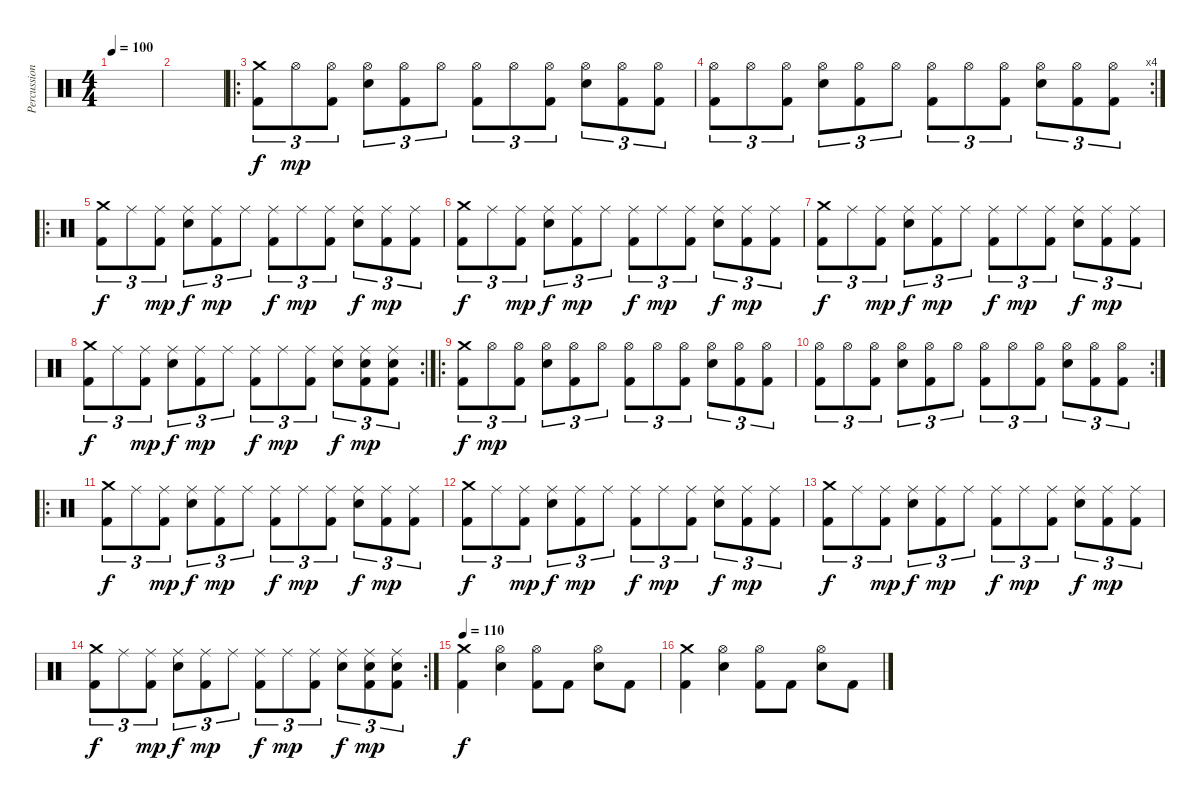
\track ("Percussion" "Percussion") {instrument percussion}
\staff {score}
\articulation defaults
\ts (4 4)
\tempo 100
\clef neutral
\ks c
|
|
\ro
("Crash medium (hit)" "Kick (hit) 2").8{tu (3 2)} "Hi-Hat (open)".8{tu (3 2) dy mp} ("Hi-Hat (open)" "Kick (hit) 2").8{tu (3 2)} ("Hi-Hat (open)" "Electric Snare (hit)").8{tu (3 2)} ("Hi-Hat (open)" "Kick (hit) 2").8{tu (3 2)} "Hi-Hat (open)".8{tu (3 2)} ("Hi-Hat (open)" "Kick (hit) 2").8{tu (3 2)} "Hi-Hat (open)".8{tu (3 2)} ("Hi-Hat (open)" "Kick (hit) 2").8{tu (3 2)} ("Hi-Hat (open)" "Electric Snare (hit)").8{tu (3 2)} ("Hi-Hat (open)" "Kick (hit) 2").8{tu (3 2)} ("Hi-Hat (open)" "Kick (hit) 2").8{tu (3 2)} |
\rc 4
("Hi-Hat (open)" "Kick (hit) 2").8{tu (3 2)} "Hi-Hat (open)".8{tu (3 2)} ("Hi-Hat (open)" "Kick (hit) 2").8{tu (3 2)} ("Hi-Hat (open)" "Electric Snare (hit)").8{tu (3 2)} ("Hi-Hat (open)" "Kick (hit) 2").8{tu (3 2)} "Hi-Hat (open)".8{tu (3 2)} ("Hi-Hat (open)" "Kick (hit) 2").8{tu (3 2)} "Hi-Hat (open)".8{tu (3 2)} ("Hi-Hat (open)" "Kick (hit) 2").8{tu (3 2)} ("Hi-Hat (open)" "Electric Snare (hit)").8{tu (3 2)} ("Hi-Hat (open)" "Kick (hit) 2").8{tu (3 2)} ("Hi-Hat (open)" "Kick (hit) 2").8{tu (3 2)} |
\ro
("Crash medium (hit)" "Kick (hit) 2").8{tu (3 2) dy f} "Ride (middle)".8{tu (3 2)} ("Ride (middle)" "Kick (hit) 2").8{tu (3 2) dy mp} ("Ride (middle)" "Electric Snare (hit)").8{tu (3 2) dy f} ("Ride (middle)" "Kick (hit) 2").8{tu (3 2) dy mp} "Ride (middle)".8{tu (3 2)} ("Ride (middle)" "Kick (hit) 2").8{tu (3 2) dy f} "Ride (middle)".8{tu (3 2) dy mp} ("Ride (middle)" "Kick (hit) 2").8{tu (3 2)} ("Ride (middle)" "Electric Snare (hit)").8{tu (3 2) dy f} ("Ride (middle)" "Kick (hit) 2").8{tu (3 2) dy mp} ("Ride (middle)" "Kick (hit) 2").8{tu (3 2)} |
("Crash medium (hit)" "Kick (hit) 2").8{tu (3 2) dy f} "Ride (middle)".8{tu (3 2)} ("Ride (middle)" "Kick (hit) 2").8{tu (3 2) dy mp} ("Ride (middle)" "Electric Snare (hit)").8{tu (3 2) dy f} ("Ride (middle)" "Kick (hit) 2").8{tu (3 2) dy mp} "Ride (middle)".8{tu (3 2)} ("Ride (middle)" "Kick (hit) 2").8{tu (3 2) dy f} "Ride (middle)".8{tu (3 2) dy mp} ("Ride (middle)" "Kick (hit) 2").8{tu (3 2)} ("Ride (middle)" "Electric Snare (hit)").8{tu (3 2) dy f} ("Ride (middle)" "Kick (hit) 2").8{tu (3 2) dy mp} ("Ride (middle)" "Kick (hit) 2").8{tu (3 2)} |
("Crash medium (hit)" "Kick (hit) 2").8{tu (3 2) dy f} "Ride (middle)".8{tu (3 2)} ("Ride (middle)" "Kick (hit) 2").8{tu (3 2) dy mp} ("Ride (middle)" "Electric Snare (hit)").8{tu (3 2) dy f} ("Ride (middle)" "Kick (hit) 2").8{tu (3 2) dy mp} "Ride (middle)".8{tu (3 2)} ("Ride (middle)" "Kick (hit) 2").8{tu (3 2) dy f} "Ride (middle)".8{tu (3 2) dy mp} ("Ride (middle)" "Kick (hit) 2").8{tu (3 2)} ("Ride (middle)" "Electric Snare (hit)").8{tu (3 2) dy f} ("Ride (middle)" "Kick (hit) 2").8{tu (3 2) dy mp} ("Ride (middle)" "Kick (hit) 2").8{tu (3 2)} |
\rc 2
("Crash medium (hit)" "Kick (hit) 2").8{tu (3 2) dy f} "Ride (middle)".8{tu (3 2)} ("Ride (middle)" "Kick (hit) 2").8{tu (3 2) dy mp} ("Ride (middle)" "Electric Snare (hit)").8{tu (3 2) dy f} ("Ride (middle)" "Kick (hit) 2").8{tu (3 2) dy mp} "Ride (middle)".8{tu (3 2)} ("Ride (middle)" "Kick (hit) 2").8{tu (3 2) dy f} "Ride (middle)".8{tu (3 2) dy mp} ("Ride (middle)" "Kick (hit) 2").8{tu (3 2)} ("Ride (middle)" "Electric Snare (hit)").8{tu (3 2) dy f} ("Ride (middle)" "Electric Snare (hit)" "Kick (hit) 2").8{tu (3 2) dy mp} ("Ride (middle)" "Electric Snare (hit)" "Kick (hit) 2").8{tu (3 2)} |
\ro
("Crash medium (hit)" "Kick (hit) 2").8{tu (3 2) dy f} "Hi-Hat (open)".8{tu (3 2) dy mp} ("Hi-Hat (open)" "Kick (hit) 2").8{tu (3 2)} ("Hi-Hat (open)" "Electric Snare (hit)").8{tu (3 2)} ("Hi-Hat (open)" "Kick (hit) 2").8{tu (3 2)} "Hi-Hat (open)".8{tu (3 2)} ("Hi-Hat (open)" "Kick (hit) 2").8{tu (3 2)} "Hi-Hat (open)".8{tu (3 2)} ("Hi-Hat (open)" "Kick (hit) 2").8{tu (3 2)} ("Hi-Hat (open)" "Electric Snare (hit)").8{tu (3 2)} ("Hi-Hat (open)" "Kick (hit) 2").8{tu (3 2)} ("Hi-Hat (open)" "Kick (hit) 2").8{tu (3 2)} |
\rc 2
("Hi-Hat (open)" "Kick (hit) 2").8{tu (3 2)} "Hi-Hat (open)".8{tu (3 2)} ("Hi-Hat (open)" "Kick (hit) 2").8{tu (3 2)} ("Hi-Hat (open)" "Electric Snare (hit)").8{tu (3 2)} ("Hi-Hat (open)" "Kick (hit) 2").8{tu (3 2)} "Hi-Hat (open)".8{tu (3 2)} ("Hi-Hat (open)" "Kick (hit) 2").8{tu (3 2)} "Hi-Hat (open)".8{tu (3 2)} ("Hi-Hat (open)" "Kick (hit) 2").8{tu (3 2)} ("Hi-Hat (open)" "Electric Snare (hit)").8{tu (3 2)} ("Hi-Hat (open)" "Kick (hit) 2").8{tu (3 2)} ("Hi-Hat (open)" "Kick (hit) 2").8{tu (3 2)} |
\ro
("Crash medium (hit)" "Kick (hit) 2").8{tu (3 2) dy f} "Ride (middle)".8{tu (3 2)} ("Ride (middle)" "Kick (hit) 2").8{tu (3 2) dy mp} ("Ride (middle)" "Electric Snare (hit)").8{tu (3 2) dy f} ("Ride (middle)" "Kick (hit) 2").8{tu (3 2) dy mp} "Ride (middle)".8{tu (3 2)} ("Ride (middle)" "Kick (hit) 2").8{tu (3 2) dy f} "Ride (middle)".8{tu (3 2) dy mp} ("Ride (middle)" "Kick (hit) 2").8{tu (3 2)} ("Ride (middle)" "Electric Snare (hit)").8{tu (3 2) dy f} ("Ride (middle)" "Kick (hit) 2").8{tu (3 2) dy mp} ("Ride (middle)" "Kick (hit) 2").8{tu (3 2)} |
("Crash medium (hit)" "Kick (hit) 2").8{tu (3 2) dy f} "Ride (middle)".8{tu (3 2)} ("Ride (middle)" "Kick (hit) 2").8{tu (3 2) dy mp} ("Ride (middle)" "Electric Snare (hit)").8{tu (3 2) dy f} ("Ride (middle)" "Kick (hit) 2").8{tu (3 2) dy mp} "Ride (middle)".8{tu (3 2)} ("Ride (middle)" "Kick (hit) 2").8{tu (3 2) dy f} "Ride (middle)".8{tu (3 2) dy mp} ("Ride (middle)" "Kick (hit) 2").8{tu (3 2)} ("Ride (middle)" "Electric Snare (hit)").8{tu (3 2) dy f} ("Ride (middle)" "Kick (hit) 2").8{tu (3 2) dy mp} ("Ride (middle)" "Kick (hit) 2").8{tu (3 2)} |
("Crash medium (hit)" "Kick (hit) 2").8{tu (3 2) dy f} "Ride (middle)".8{tu (3 2)} ("Ride (middle)" "Kick (hit) 2").8{tu (3 2) dy mp} ("Ride (middle)" "Electric Snare (hit)").8{tu (3 2) dy f} ("Ride (middle)" "Kick (hit) 2").8{tu (3 2) dy mp} "Ride (middle)".8{tu (3 2)} ("Ride (middle)" "Kick (hit) 2").8{tu (3 2) dy f} "Ride (middle)".8{tu (3 2) dy mp} ("Ride (middle)" "Kick (hit) 2").8{tu (3 2)} ("Ride (middle)" "Electric Snare (hit)").8{tu (3 2) dy f} ("Ride (middle)" "Kick (hit) 2").8{tu (3 2) dy mp} ("Ride (middle)" "Kick (hit) 2").8{tu (3 2)} |
\rc 2
("Crash medium (hit)" "Kick (hit) 2").8{tu (3 2) dy f} "Ride (middle)".8{tu (3 2)} ("Ride (middle)" "Kick (hit) 2").8{tu (3 2) dy mp} ("Ride (middle)" "Electric Snare (hit)").8{tu (3 2) dy f} ("Ride (middle)" "Kick (hit) 2").8{tu (3 2) dy mp} "Ride (middle)".8{tu (3 2)} ("Ride (middle)" "Kick (hit) 2").8{tu (3 2) dy f} "Ride (middle)".8{tu (3 2) dy mp} ("Ride (middle)" "Kick (hit) 2").8{tu (3 2)} ("Ride (middle)" "Electric Snare (hit)").8{tu (3 2) dy f} ("Ride (middle)" "Electric Snare (hit)" "Kick (hit) 2").8{tu (3 2) dy mp} ("Ride (middle)" "Electric Snare (hit)" "Kick (hit) 2").8{tu (3 2)} |
\tempo 110
("Crash medium (hit)" "Kick (hit) 2").4{dy f} ("Hi-Hat (open)" "Electric Snare (hit)").4 ("Hi-Hat (open)" "Kick (hit) 2").8 "Kick (hit) 2".8 ("Hi-Hat (open)" "Electric Snare (hit)").8 "Kick (hit) 2".8 |
("Crash medium (hit)" "Kick (hit) 2").4 ("Hi-Hat (open)" "Electric Snare (hit)").4 ("Hi-Hat (open)" "Kick (hit) 2").8 "Kick (hit) 2".8 ("Hi-Hat (open)" "Electric Snare (hit)").8 "Kick (hit) 2".8
